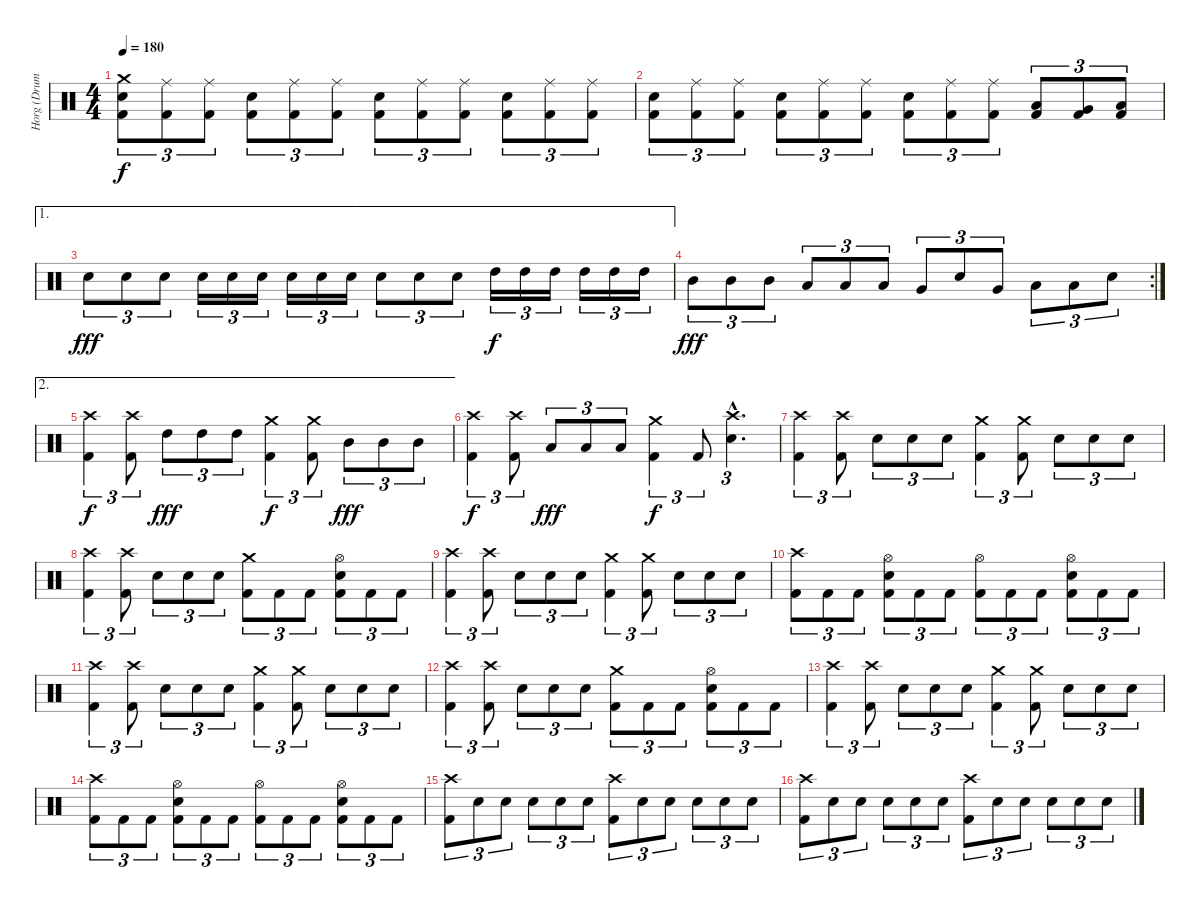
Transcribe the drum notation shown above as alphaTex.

\track ("Horg (Drums)" "Horg (Drum") {instrument percussion}
\staff {score}
\articulation defaults
\ts (4 4)
\tempo 180
\clef neutral
\ks c
("Crash medium (hit)" "Electric Snare (hit)" "Kick (hit) 2").8{tu (3 2) dy f} ("Ride (middle)" "Kick (hit) 2").8{tu (3 2)} ("Ride (middle)" "Kick (hit) 2").8{tu (3 2)} ("Electric Snare (hit)" "Kick (hit) 2").8{tu (3 2)} ("Ride (middle)" "Kick (hit) 2").8{tu (3 2)} ("Ride (middle)" "Kick (hit) 2").8{tu (3 2)} ("Electric Snare (hit)" "Kick (hit) 2").8{tu (3 2)} ("Ride (middle)" "Kick (hit) 2").8{tu (3 2)} ("Ride (middle)" "Kick (hit) 2").8{tu (3 2)} ("Electric Snare (hit)" "Kick (hit) 2").8{tu (3 2)} ("Ride (middle)" "Kick (hit) 2").8{tu (3 2)} ("Ride (middle)" "Kick (hit) 2").8{tu (3 2)} |
("Electric Snare (hit)" "Kick (hit) 2").8{tu (3 2)} ("Ride (middle)" "Kick (hit) 2").8{tu (3 2)} ("Ride (middle)" "Kick (hit) 2").8{tu (3 2)} ("Electric Snare (hit)" "Kick (hit) 2").8{tu (3 2)} ("Ride (middle)" "Kick (hit) 2").8{tu (3 2)} ("Ride (middle)" "Kick (hit) 2").8{tu (3 2)} ("Electric Snare (hit)" "Kick (hit) 2").8{tu (3 2)} ("Ride (middle)" "Kick (hit) 2").8{tu (3 2)} ("Ride (middle)" "Kick (hit) 2").8{tu (3 2)} ("Low Tom (hit)" "Kick (hit) 2").8{tu (3 2)} ("Very Low Tom (hit)" "Kick (hit) 2").8{tu (3 2)} ("Low Floor Tom (hit)" "Kick (hit) 2").8{tu (3 2)} |
\ae 1 "Electric Snare (hit)".8{tu (3 2) dy fff} "Electric Snare (hit)".8{tu (3 2)} "Electric Snare (hit)".8{tu (3 2)} "Electric Snare (hit)".16{tu (3 2)} "Electric Snare (hit)".16{tu (3 2)} "Electric Snare (hit)".16{tu (3 2)} "Electric Snare (hit)".16{tu (3 2)} "Electric Snare (hit)".16{tu (3 2)} "Electric Snare (hit)".16{tu (3 2)} "Electric Snare (hit)".8{tu (3 2)} "Electric Snare (hit)".8{tu (3 2)} "Electric Snare (hit)".8{tu (3 2)} "High Tom (hit)".16{tu (3 2) dy f} "High Tom (hit)".16{tu (3 2)} "High Tom (hit)".16{tu (3 2)} "High Tom (hit)".16{tu (3 2)} "High Tom (hit)".16{tu (3 2)} "High Tom (hit)".16{tu (3 2)}
|
\rc 2 "Mid Tom (hit)".8{tu (3 2) dy fff} "Mid Tom (hit)".8{tu (3 2)} "Mid Tom (hit)".8{tu (3 2)} "Low Tom (hit)".8{tu (3 2)} "Low Tom (hit)".8{tu (3 2)} "Low Tom (hit)".8{tu (3 2)} "Very Low Tom (hit)".8{tu (3 2)} "Electric Snare (hit)".8{tu (3 2)} "Very Low Tom (hit)".8{tu (3 2)} "Low Floor Tom (hit)".8{tu (3 2)} "Low Floor Tom (hit)".8{tu (3 2)} "Electric Snare (hit)".8{tu (3 2)}
|
\ae 2
("Crash high (hit)" "Kick (hit) 2").4{tu (3 2) dy f} ("Crash high (hit)" "Kick (hit) 2").8{tu (3 2)} "High Tom (hit)".8{tu (3 2) dy fff} "High Tom (hit)".8{tu (3 2)} "High Tom (hit)".8{tu (3 2)} ("Crash medium (hit)" "Kick (hit) 2").4{tu (3 2) dy f} ("Crash medium (hit)" "Kick (hit) 2").8{tu (3 2)} "Mid Tom (hit)".8{tu (3 2) dy fff} "Mid Tom (hit)".8{tu (3 2)} "Mid Tom (hit)".8{tu (3 2)} |
("Crash high (hit)" "Kick (hit) 2").4{tu (3 2) dy f} ("Crash high (hit)" "Kick (hit) 2").8{tu (3 2)} "Low Tom (hit)".8{tu (3 2) dy fff} "Low Tom (hit)".8{tu (3 2)} "Low Tom (hit)".8{tu (3 2)} ("Crash medium (hit)" "Kick (hit) 2").4{tu (3 2) dy f} "Kick (hit) 2".8{tu (3 2)} ("Crash high (hit)"{hac} "Electric Snare (hit)"{hac}).4{d tu (3 2)} |
("Crash high (hit)" "Kick (hit) 2").4{tu (3 2)} ("Crash high (hit)" "Kick (hit) 2").8{tu (3 2)} "Electric Snare (hit)".8{tu (3 2)} "Electric Snare (hit)".8{tu (3 2)} "Electric Snare (hit)".8{tu (3 2)} ("Crash medium (hit)" "Kick (hit) 2").4{tu (3 2)} ("Crash medium (hit)" "Kick (hit) 2").8{tu (3 2)} "Electric Snare (hit)".8{tu (3 2)} "Electric Snare (hit)".8{tu (3 2)} "Electric Snare (hit)".8{tu (3 2)} |
("Crash high (hit)" "Kick (hit) 2").4{tu (3 2)} ("Crash high (hit)" "Kick (hit) 2").8{tu (3 2)} "Electric Snare (hit)".8{tu (3 2)} "Electric Snare (hit)".8{tu (3 2)} "Electric Snare (hit)".8{tu (3 2)} ("Crash medium (hit)" "Kick (hit) 2").8{tu (3 2)} "Kick (hit) 2".8{tu (3 2)} "Kick (hit) 2".8{tu (3 2)} ("Hi-Hat (open)" "Electric Snare (hit)" "Kick (hit) 2").8{tu (3 2)} "Kick (hit) 2".8{tu (3 2)} "Kick (hit) 2".8{tu (3 2)} |
("Crash high (hit)" "Kick (hit) 2").4{tu (3 2)} ("Crash high (hit)" "Kick (hit) 2").8{tu (3 2)} "Electric Snare (hit)".8{tu (3 2)} "Electric Snare (hit)".8{tu (3 2)} "Electric Snare (hit)".8{tu (3 2)} ("Crash medium (hit)" "Kick (hit) 2").4{tu (3 2)} ("Crash medium (hit)" "Kick (hit) 2").8{tu (3 2)} "Electric Snare (hit)".8{tu (3 2)} "Electric Snare (hit)".8{tu (3 2)} "Electric Snare (hit)".8{tu (3 2)} |
("Crash high (hit)" "Kick (hit) 2").8{tu (3 2)} "Kick (hit) 2".8{tu (3 2)} "Kick (hit) 2".8{tu (3 2)} ("Hi-Hat (open)" "Electric Snare (hit)" "Kick (hit) 2").8{tu (3 2)} "Kick (hit) 2".8{tu (3 2)} "Kick (hit) 2".8{tu (3 2)} ("Hi-Hat (open)" "Kick (hit) 2").8{tu (3 2)} "Kick (hit) 2".8{tu (3 2)} "Kick (hit) 2".8{tu (3 2)} ("Hi-Hat (open)" "Electric Snare (hit)" "Kick (hit) 2").8{tu (3 2)} "Kick (hit) 2".8{tu (3 2)} "Kick (hit) 2".8{tu (3 2)} |
("Crash high (hit)" "Kick (hit) 2").4{tu (3 2)} ("Crash high (hit)" "Kick (hit) 2").8{tu (3 2)} "Electric Snare (hit)".8{tu (3 2)} "Electric Snare (hit)".8{tu (3 2)} "Electric Snare (hit)".8{tu (3 2)} ("Crash medium (hit)" "Kick (hit) 2").4{tu (3 2)} ("Crash medium (hit)" "Kick (hit) 2").8{tu (3 2)} "Electric Snare (hit)".8{tu (3 2)} "Electric Snare (hit)".8{tu (3 2)} "Electric Snare (hit)".8{tu (3 2)} |
("Crash high (hit)" "Kick (hit) 2").4{tu (3 2)} ("Crash high (hit)" "Kick (hit) 2").8{tu (3 2)} "Electric Snare (hit)".8{tu (3 2)} "Electric Snare (hit)".8{tu (3 2)} "Electric Snare (hit)".8{tu (3 2)} ("Crash medium (hit)" "Kick (hit) 2").8{tu (3 2)} "Kick (hit) 2".8{tu (3 2)} "Kick (hit) 2".8{tu (3 2)} ("Hi-Hat (open)" "Electric Snare (hit)" "Kick (hit) 2").8{tu (3 2)} "Kick (hit) 2".8{tu (3 2)} "Kick (hit) 2".8{tu (3 2)} |
("Crash high (hit)" "Kick (hit) 2").4{tu (3 2)} ("Crash high (hit)" "Kick (hit) 2").8{tu (3 2)} "Electric Snare (hit)".8{tu (3 2)} "Electric Snare (hit)".8{tu (3 2)} "Electric Snare (hit)".8{tu (3 2)} ("Crash medium (hit)" "Kick (hit) 2").4{tu (3 2)} ("Crash medium (hit)" "Kick (hit) 2").8{tu (3 2)} "Electric Snare (hit)".8{tu (3 2)} "Electric Snare (hit)".8{tu (3 2)} "Electric Snare (hit)".8{tu (3 2)} |
("Crash high (hit)" "Kick (hit) 2").8{tu (3 2)} "Kick (hit) 2".8{tu (3 2)} "Kick (hit) 2".8{tu (3 2)} ("Hi-Hat (open)" "Electric Snare (hit)" "Kick (hit) 2").8{tu (3 2)} "Kick (hit) 2".8{tu (3 2)} "Kick (hit) 2".8{tu (3 2)} ("Hi-Hat (open)" "Kick (hit) 2").8{tu (3 2)} "Kick (hit) 2".8{tu (3 2)} "Kick (hit) 2".8{tu (3 2)} ("Hi-Hat (open)" "Electric Snare (hit)" "Kick (hit) 2").8{tu (3 2)} "Kick (hit) 2".8{tu (3 2)} "Kick (hit) 2".8{tu (3 2)} |
("Crash high (hit)" "Kick (hit) 2").8{tu (3 2)} "Electric Snare (hit)".8{tu (3 2)} "Electric Snare (hit)".8{tu (3 2)} "Electric Snare (hit)".8{tu (3 2)} "Electric Snare (hit)".8{tu (3 2)} "Electric Snare (hit)".8{tu (3 2)} ("Crash high (hit)" "Kick (hit) 2").8{tu (3 2)} "Electric Snare (hit)".8{tu (3 2)} "Electric Snare (hit)".8{tu (3 2)} "Electric Snare (hit)".8{tu (3 2)} "Electric Snare (hit)".8{tu (3 2)} "Electric Snare (hit)".8{tu (3 2)} |
("Crash high (hit)" "Kick (hit) 2").8{tu (3 2)} "Electric Snare (hit)".8{tu (3 2)} "Electric Snare (hit)".8{tu (3 2)} "Electric Snare (hit)".8{tu (3 2)} "Electric Snare (hit)".8{tu (3 2)} "Electric Snare (hit)".8{tu (3 2)} ("Crash high (hit)" "Kick (hit) 2").8{tu (3 2)} "Electric Snare (hit)".8{tu (3 2)} "Electric Snare (hit)".8{tu (3 2)} "Electric Snare (hit)".8{tu (3 2)} "Electric Snare (hit)".8{tu (3 2)} "Electric Snare (hit)".8{tu (3 2)}
